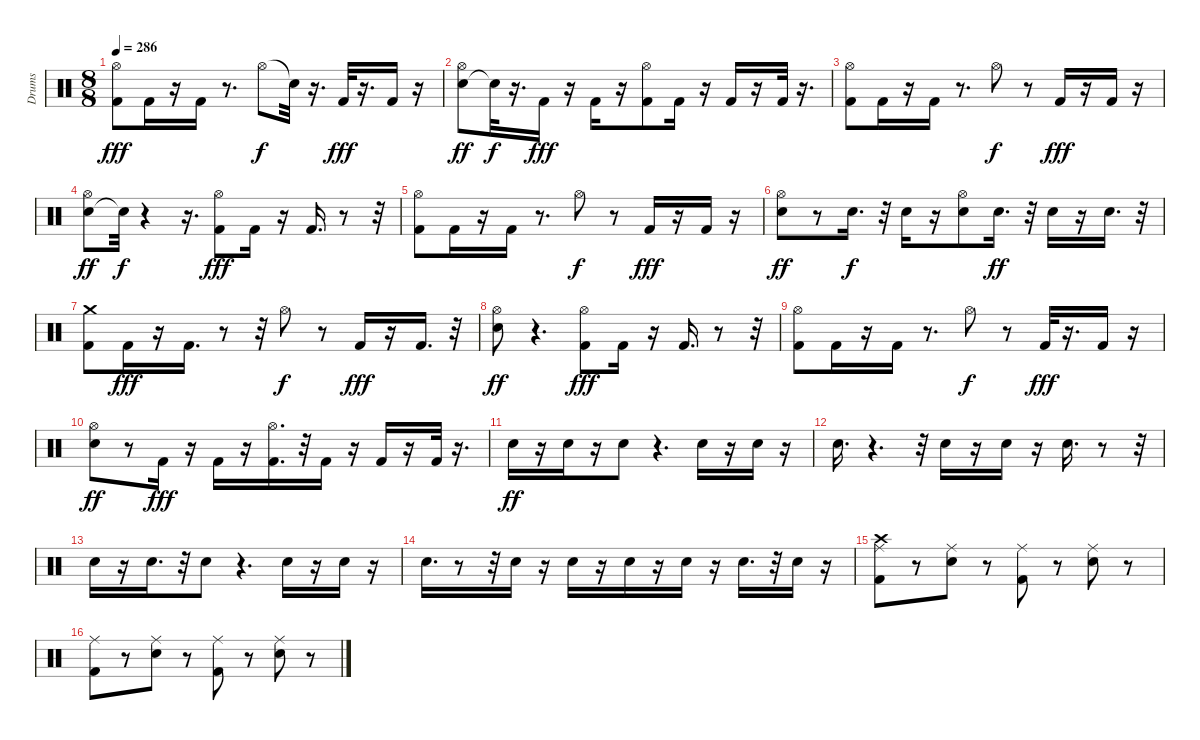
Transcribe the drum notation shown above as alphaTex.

\track ("Drums" "Drums") {instrument percussion}
\staff {score}
\articulation defaults
\ts (8 8)
\tempo 286
\clef neutral
\ks c
("Kick (hit) 2" "Hi-Hat (open)").8{dy fff} "Kick (hit) 2".16 r.16 "Kick (hit) 2".16 r.8{d} "Hi-Hat (open)".8{dy f} "Snare (hit)"{t}.32 r.16{d} "Kick (hit) 2".32{dy fff} r.16{d} "Kick (hit) 2".16 r.16 |
("Snare (hit) 2" "Hi-Hat (open)").8{dy ff} "Snare (hit)"{t}.32{dy f} r.16{d} "Kick (hit) 2".16{dy fff} r.16 "Kick (hit) 2".16 r.16 ("Kick (hit) 2" "Hi-Hat (open)").8 "Kick (hit) 2".16 r.16 "Kick (hit) 2".16 r.16 "Kick (hit) 2".32 r.16{d} |
("Kick (hit) 2" "Hi-Hat (open)").8 "Kick (hit) 2".16 r.16 "Kick (hit) 2".16 r.8{d} "Hi-Hat (open)".8{dy f} r.8 "Kick (hit) 2".16{dy fff} r.16 "Kick (hit) 2".16 r.16 |
("Snare (hit) 2" "Hi-Hat (open)").8{dy ff} "Snare (hit)"{t}.32{dy f} r.4 r.16{d} ("Kick (hit) 2" "Hi-Hat (open)").8{dy fff} "Kick (hit) 2".16 r.16 "Kick (hit) 2".16{d} r.8 r.32 |
("Kick (hit) 2" "Hi-Hat (open)").8 "Kick (hit) 2".16 r.16 "Kick (hit) 2".16 r.8{d} "Hi-Hat (open)".8{dy f} r.8 "Kick (hit) 2".16{dy fff} r.16 "Kick (hit) 2".16 r.16 |
("Snare (hit) 2" "Hi-Hat (open)").8{dy ff} r.8 "Snare (hit) 2".16{d dy f} r.32 "Snare (hit) 2".16 r.16 ("Snare (hit) 2" "Hi-Hat (open)").8 "Snare (hit) 2".16{d dy ff} r.32 "Snare (hit) 2".16 r.16 "Snare (hit) 2".16{d} r.32 |
("Kick (hit) 2" "Crash medium (hit)").8 "Kick (hit) 2".16{dy fff} r.16 "Kick (hit) 2".16{d} r.8 r.32 "Hi-Hat (open)".8{dy f} r.8 "Kick (hit) 2".16{dy fff} r.16 "Kick (hit) 2".16{d} r.32 |
("Snare (hit) 2" "Hi-Hat (open)").8{dy ff} r.4{d} ("Kick (hit) 2" "Hi-Hat (open)").8{dy fff} "Kick (hit) 2".16 r.16 "Kick (hit) 2".16{d} r.8 r.32 |
("Kick (hit) 2" "Hi-Hat (open)").8 "Kick (hit) 2".16 r.16 "Kick (hit) 2".16 r.8{d} "Hi-Hat (open)".8{dy f} r.8 "Kick (hit) 2".32{dy fff} r.16{d} "Kick (hit) 2".16 r.16 |
("Snare (hit) 2" "Hi-Hat (open)").8{dy ff} r.8 "Kick (hit) 2".16{dy fff} r.16 "Kick (hit) 2".16 r.16 ("Kick (hit) 2" "Hi-Hat (open)").16{d} r.32 "Kick (hit) 2".16 r.16 "Kick (hit) 2".16 r.16 "Kick (hit) 2".32 r.16{d} |
"Snare (hit) 2".16{dy ff} r.16 "Snare (hit) 2".16 r.16 "Snare (hit) 2".8 r.4{d} "Snare (hit) 2".16 r.16 "Snare (hit) 2".16 r.16 |
"Snare (hit) 2".16{d} r.4{d} r.32 "Snare (hit) 2".16 r.16 "Snare (hit) 2".16 r.16 "Snare (hit) 2".16{d} r.8 r.32 |
"Snare (hit) 2".16 r.16 "Snare (hit) 2".16{d} r.32 "Snare (hit) 2".8 r.4{d} "Snare (hit) 2".16 r.16 "Snare (hit) 2".16 r.16 |
"Snare (hit) 2".16{d} r.8 r.32 "Snare (hit) 2".16 r.16 "Snare (hit) 2".16 r.16 "Snare (hit) 2".16 r.16 "Snare (hit) 2".16 r.16 "Snare (hit) 2".16{d} r.32 "Snare (hit) 2".16 r.16 |
("Kick (hit) 2" "Ride (middle)" "Crash high (hit)").8 r.8 ("Snare (hit) 2" "Ride (middle)").8 r.8 ("Kick (hit) 2" "Ride (middle)").8 r.8 ("Snare (hit) 2" "Ride (middle)").8 r.8 |
("Kick (hit) 2" "Ride (middle)").8 r.8 ("Snare (hit) 2" "Ride (middle)").8 r.8 ("Kick (hit) 2" "Ride (middle)").8 r.8 ("Snare (hit) 2" "Ride (middle)").8 r.8
